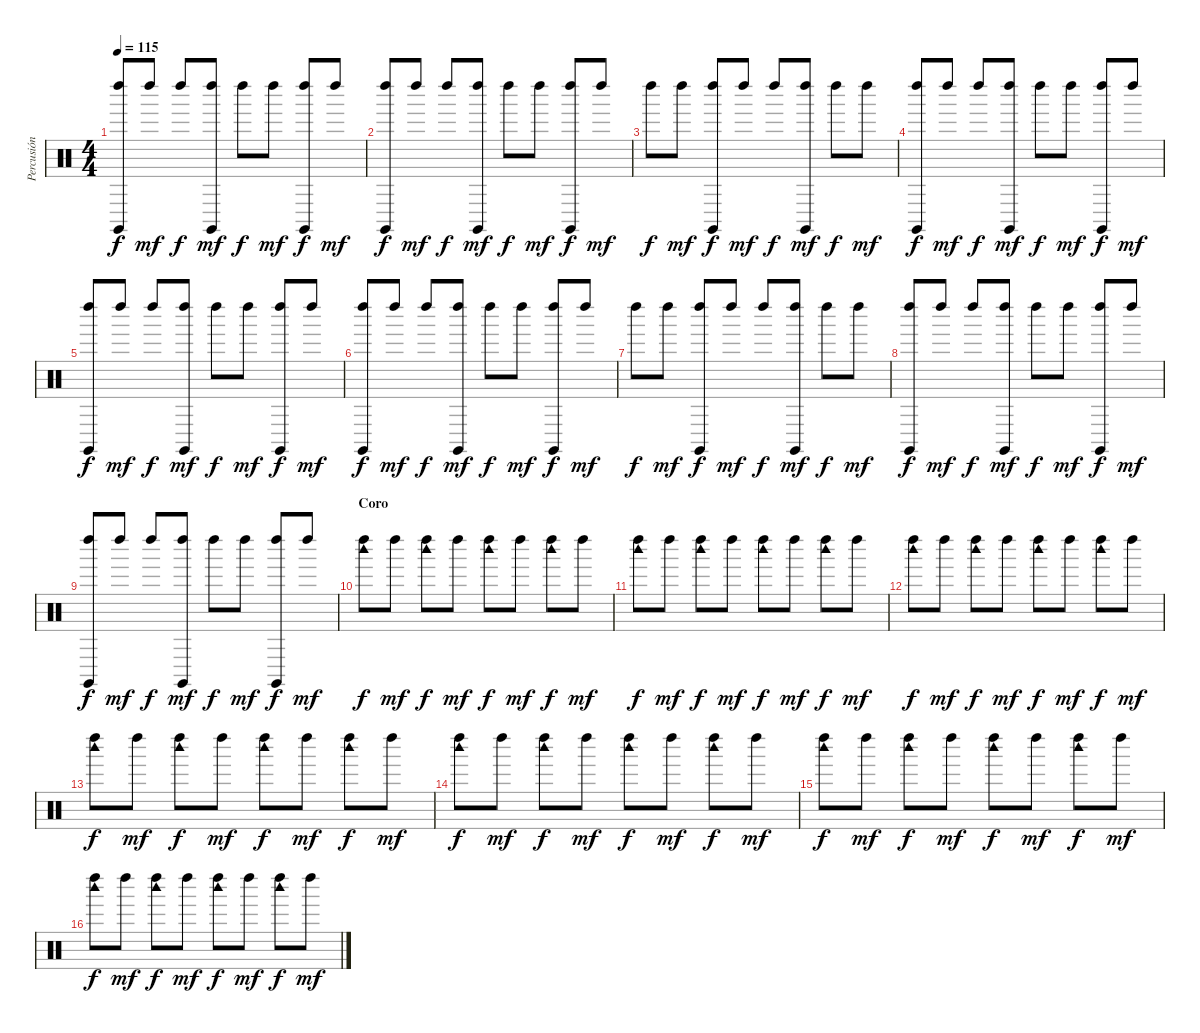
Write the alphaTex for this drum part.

\track ("Percusión" "Percusión") {instrument percussion}
\staff {score}
\articulation defaults
\ts (4 4)
\tempo 115
\clef neutral
\ks c
("Claves (hit)" "Left Maraca (hit)").8{dy f} "Left Maraca (hit)".8{dy mf} "Left Maraca (hit)".8{dy f} ("Claves (hit)" "Left Maraca (hit)").8{dy mf} "Left Maraca (hit)".8{dy f} "Left Maraca (hit)".8{dy mf} ("Claves (hit)" "Left Maraca (hit)").8{dy f} "Left Maraca (hit)".8{dy mf} |
("Claves (hit)" "Left Maraca (hit)").8{dy f} "Left Maraca (hit)".8{dy mf} "Left Maraca (hit)".8{dy f} ("Claves (hit)" "Left Maraca (hit)").8{dy mf} "Left Maraca (hit)".8{dy f} "Left Maraca (hit)".8{dy mf} ("Claves (hit)" "Left Maraca (hit)").8{dy f} "Left Maraca (hit)".8{dy mf} |
"Left Maraca (hit)".8{dy f} "Left Maraca (hit)".8{dy mf} ("Claves (hit)" "Left Maraca (hit)").8{dy f} "Left Maraca (hit)".8{dy mf} "Left Maraca (hit)".8{dy f} ("Claves (hit)" "Left Maraca (hit)").8{dy mf} "Left Maraca (hit)".8{dy f} "Left Maraca (hit)".8{dy mf} |
("Claves (hit)" "Left Maraca (hit)").8{dy f} "Left Maraca (hit)".8{dy mf} "Left Maraca (hit)".8{dy f} ("Claves (hit)" "Left Maraca (hit)").8{dy mf} "Left Maraca (hit)".8{dy f} "Left Maraca (hit)".8{dy mf} ("Claves (hit)" "Left Maraca (hit)").8{dy f} "Left Maraca (hit)".8{dy mf} |
("Claves (hit)" "Left Maraca (hit)").8{dy f} "Left Maraca (hit)".8{dy mf} "Left Maraca (hit)".8{dy f} ("Claves (hit)" "Left Maraca (hit)").8{dy mf} "Left Maraca (hit)".8{dy f} "Left Maraca (hit)".8{dy mf} ("Claves (hit)" "Left Maraca (hit)").8{dy f} "Left Maraca (hit)".8{dy mf} |
("Claves (hit)" "Left Maraca (hit)").8{dy f} "Left Maraca (hit)".8{dy mf} "Left Maraca (hit)".8{dy f} ("Claves (hit)" "Left Maraca (hit)").8{dy mf} "Left Maraca (hit)".8{dy f} "Left Maraca (hit)".8{dy mf} ("Claves (hit)" "Left Maraca (hit)").8{dy f} "Left Maraca (hit)".8{dy mf} |
"Left Maraca (hit)".8{dy f} "Left Maraca (hit)".8{dy mf} ("Claves (hit)" "Left Maraca (hit)").8{dy f} "Left Maraca (hit)".8{dy mf} "Left Maraca (hit)".8{dy f} ("Claves (hit)" "Left Maraca (hit)").8{dy mf} "Left Maraca (hit)".8{dy f} "Left Maraca (hit)".8{dy mf} |
("Claves (hit)" "Left Maraca (hit)").8{dy f} "Left Maraca (hit)".8{dy mf} "Left Maraca (hit)".8{dy f} ("Claves (hit)" "Left Maraca (hit)").8{dy mf} "Left Maraca (hit)".8{dy f} "Left Maraca (hit)".8{dy mf} ("Claves (hit)" "Left Maraca (hit)").8{dy f} "Left Maraca (hit)".8{dy mf} |
("Claves (hit)" "Left Maraca (hit)").8{dy f} "Left Maraca (hit)".8{dy mf} "Left Maraca (hit)".8{dy f} ("Claves (hit)" "Left Maraca (hit)").8{dy mf} "Left Maraca (hit)".8{dy f} "Left Maraca (hit)".8{dy mf} ("Claves (hit)" "Left Maraca (hit)").8{dy f} "Left Maraca (hit)".8{dy mf} |
\section ("" "Coro")
("Woodblock high (hit)" "Left Maraca (hit)").8{dy f} "Left Maraca (hit)".8{dy mf} ("Woodblock high (hit)" "Left Maraca (hit)").8{dy f} "Left Maraca (hit)".8{dy mf} ("Woodblock high (hit)" "Left Maraca (hit)").8{dy f} "Left Maraca (hit)".8{dy mf} ("Woodblock high (hit)" "Left Maraca (hit)").8{dy f} "Left Maraca (hit)".8{dy mf} |
("Woodblock high (hit)" "Left Maraca (hit)").8{dy f} "Left Maraca (hit)".8{dy mf} ("Woodblock high (hit)" "Left Maraca (hit)").8{dy f} "Left Maraca (hit)".8{dy mf} ("Woodblock high (hit)" "Left Maraca (hit)").8{dy f} "Left Maraca (hit)".8{dy mf} ("Woodblock high (hit)" "Left Maraca (hit)").8{dy f} "Left Maraca (hit)".8{dy mf} |
("Woodblock high (hit)" "Left Maraca (hit)").8{dy f} "Left Maraca (hit)".8{dy mf} ("Woodblock high (hit)" "Left Maraca (hit)").8{dy f} "Left Maraca (hit)".8{dy mf} ("Woodblock high (hit)" "Left Maraca (hit)").8{dy f} "Left Maraca (hit)".8{dy mf} ("Woodblock high (hit)" "Left Maraca (hit)").8{dy f} "Left Maraca (hit)".8{dy mf} |
("Woodblock high (hit)" "Left Maraca (hit)").8{dy f} "Left Maraca (hit)".8{dy mf} ("Woodblock high (hit)" "Left Maraca (hit)").8{dy f} "Left Maraca (hit)".8{dy mf} ("Woodblock high (hit)" "Left Maraca (hit)").8{dy f} "Left Maraca (hit)".8{dy mf} ("Woodblock high (hit)" "Left Maraca (hit)").8{dy f} "Left Maraca (hit)".8{dy mf} |
("Woodblock high (hit)" "Left Maraca (hit)").8{dy f} "Left Maraca (hit)".8{dy mf} ("Woodblock high (hit)" "Left Maraca (hit)").8{dy f} "Left Maraca (hit)".8{dy mf} ("Woodblock high (hit)" "Left Maraca (hit)").8{dy f} "Left Maraca (hit)".8{dy mf} ("Woodblock high (hit)" "Left Maraca (hit)").8{dy f} "Left Maraca (hit)".8{dy mf} |
("Woodblock high (hit)" "Left Maraca (hit)").8{dy f} "Left Maraca (hit)".8{dy mf} ("Woodblock high (hit)" "Left Maraca (hit)").8{dy f} "Left Maraca (hit)".8{dy mf} ("Woodblock high (hit)" "Left Maraca (hit)").8{dy f} "Left Maraca (hit)".8{dy mf} ("Woodblock high (hit)" "Left Maraca (hit)").8{dy f} "Left Maraca (hit)".8{dy mf} |
("Woodblock high (hit)" "Left Maraca (hit)").8{dy f} "Left Maraca (hit)".8{dy mf} ("Woodblock high (hit)" "Left Maraca (hit)").8{dy f} "Left Maraca (hit)".8{dy mf} ("Woodblock high (hit)" "Left Maraca (hit)").8{dy f} "Left Maraca (hit)".8{dy mf} ("Woodblock high (hit)" "Left Maraca (hit)").8{dy f} "Left Maraca (hit)".8{dy mf}
